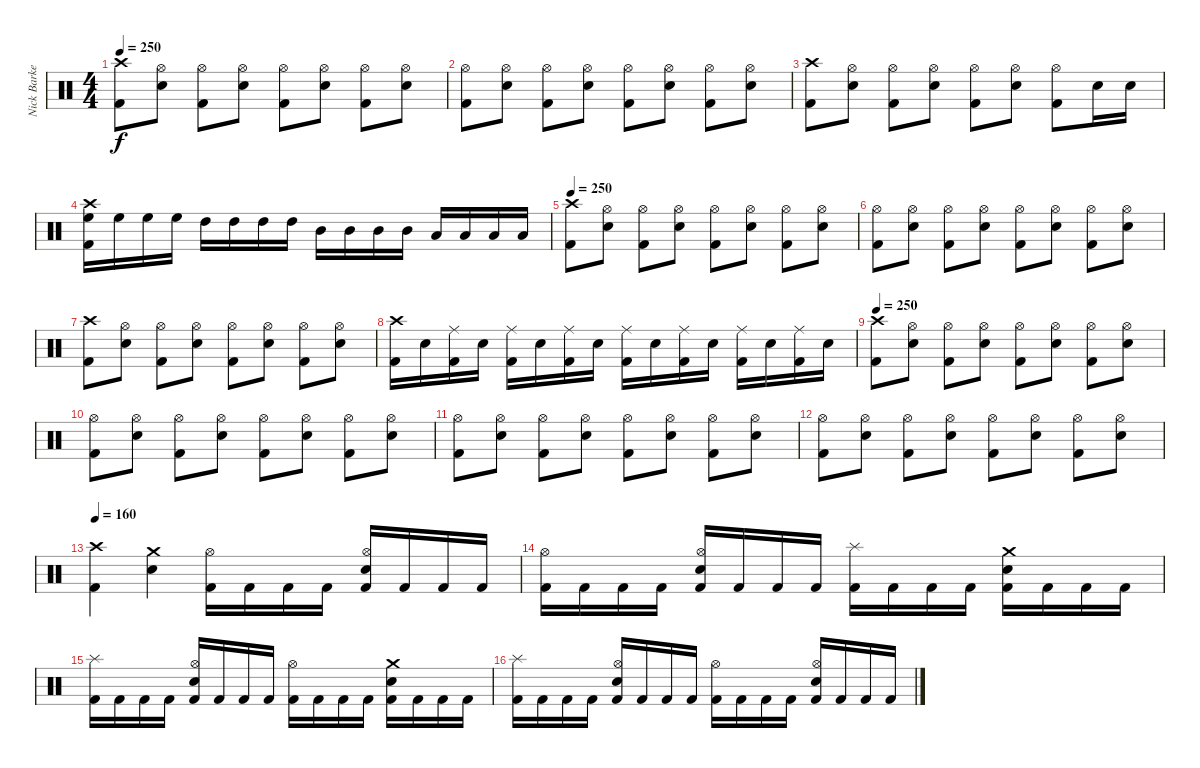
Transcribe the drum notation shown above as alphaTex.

\track ("Nick Barker" "Nick Barke") {instrument percussion}
\staff {score}
\articulation defaults
\ts (4 4)
\tempo 250
\clef neutral
\ks c
("Crash high (hit)" "Kick (hit) 2").8{dy f} ("Hi-Hat (open)" "Electric Snare (hit)").8 ("Hi-Hat (open)" "Kick (hit) 2").8 ("Hi-Hat (open)" "Electric Snare (hit)").8 ("Hi-Hat (open)" "Kick (hit) 2").8 ("Hi-Hat (open)" "Electric Snare (hit)").8 ("Hi-Hat (open)" "Kick (hit) 2").8 ("Hi-Hat (open)" "Electric Snare (hit)").8 |
("Hi-Hat (open)" "Kick (hit) 2").8 ("Hi-Hat (open)" "Electric Snare (hit)").8 ("Hi-Hat (open)" "Kick (hit) 2").8 ("Hi-Hat (open)" "Electric Snare (hit)").8 ("Hi-Hat (open)" "Kick (hit) 2").8 ("Hi-Hat (open)" "Electric Snare (hit)").8 ("Hi-Hat (open)" "Kick (hit) 2").8 ("Hi-Hat (open)" "Electric Snare (hit)").8 |
("Crash high (hit)" "Kick (hit) 2").8 ("Hi-Hat (open)" "Electric Snare (hit)").8 ("Hi-Hat (open)" "Kick (hit) 2").8 ("Hi-Hat (open)" "Electric Snare (hit)").8 ("Hi-Hat (open)" "Kick (hit) 2").8 ("Hi-Hat (open)" "Electric Snare (hit)").8 ("Hi-Hat (open)" "Kick (hit) 2").8 "Electric Snare (hit)".16 "Electric Snare (hit)".16 |
("Crash high (hit)" "High Floor Tom (hit)" "Kick (hit) 2").16 "High Floor Tom (hit)".16 "High Floor Tom (hit)".16 "High Floor Tom (hit)".16 "High Tom (hit)".16 "High Tom (hit)".16 "High Tom (hit)".16 "High Tom (hit)".16 "Mid Tom (hit)".16 "Mid Tom (hit)".16 "Mid Tom (hit)".16 "Mid Tom (hit)".16 "Low Tom (hit)".16 "Low Tom (hit)".16 "Low Tom (hit)".16 "Low Tom (hit)".16 |
\tempo 250
("Crash high (hit)" "Kick (hit) 2").8 ("Hi-Hat (open)" "Electric Snare (hit)").8 ("Hi-Hat (open)" "Kick (hit) 2").8 ("Hi-Hat (open)" "Electric Snare (hit)").8 ("Hi-Hat (open)" "Kick (hit) 2").8 ("Hi-Hat (open)" "Electric Snare (hit)").8 ("Hi-Hat (open)" "Kick (hit) 2").8 ("Hi-Hat (open)" "Electric Snare (hit)").8 |
("Hi-Hat (open)" "Kick (hit) 2").8 ("Hi-Hat (open)" "Electric Snare (hit)").8 ("Hi-Hat (open)" "Kick (hit) 2").8 ("Hi-Hat (open)" "Electric Snare (hit)").8 ("Hi-Hat (open)" "Kick (hit) 2").8 ("Hi-Hat (open)" "Electric Snare (hit)").8 ("Hi-Hat (open)" "Kick (hit) 2").8 ("Hi-Hat (open)" "Electric Snare (hit)").8 |
("Crash high (hit)" "Kick (hit) 2").8 ("Hi-Hat (open)" "Electric Snare (hit)").8 ("Hi-Hat (open)" "Kick (hit) 2").8 ("Hi-Hat (open)" "Electric Snare (hit)").8 ("Hi-Hat (open)" "Kick (hit) 2").8 ("Hi-Hat (open)" "Electric Snare (hit)").8 ("Hi-Hat (open)" "Kick (hit) 2").8 ("Hi-Hat (open)" "Electric Snare (hit)").8 |
("Crash high (hit)" "Kick (hit) 2").16 "Electric Snare (hit)".16 ("Ride (middle)" "Kick (hit) 2").16 "Electric Snare (hit)".16 ("Ride (middle)" "Kick (hit) 2").16 "Electric Snare (hit)".16 ("Ride (middle)" "Kick (hit) 2").16 "Electric Snare (hit)".16 ("Ride (middle)" "Kick (hit) 2").16 "Electric Snare (hit)".16 ("Ride (middle)" "Kick (hit) 2").16 "Electric Snare (hit)".16 ("Ride (middle)" "Kick (hit) 2").16 "Electric Snare (hit)".16 ("Ride (middle)" "Kick (hit) 2").16 "Electric Snare (hit)".16 |
\tempo 250
("Crash high (hit)" "Kick (hit) 2").8 ("Hi-Hat (open)" "Electric Snare (hit)").8 ("Hi-Hat (open)" "Kick (hit) 2").8 ("Hi-Hat (open)" "Electric Snare (hit)").8 ("Hi-Hat (open)" "Kick (hit) 2").8 ("Hi-Hat (open)" "Electric Snare (hit)").8 ("Hi-Hat (open)" "Kick (hit) 2").8 ("Hi-Hat (open)" "Electric Snare (hit)").8 |
("Hi-Hat (open)" "Kick (hit) 2").8 ("Hi-Hat (open)" "Electric Snare (hit)").8 ("Hi-Hat (open)" "Kick (hit) 2").8 ("Hi-Hat (open)" "Electric Snare (hit)").8 ("Hi-Hat (open)" "Kick (hit) 2").8 ("Hi-Hat (open)" "Electric Snare (hit)").8 ("Hi-Hat (open)" "Kick (hit) 2").8 ("Hi-Hat (open)" "Electric Snare (hit)").8 |
("Hi-Hat (open)" "Kick (hit) 2").8 ("Hi-Hat (open)" "Electric Snare (hit)").8 ("Hi-Hat (open)" "Kick (hit) 2").8 ("Hi-Hat (open)" "Electric Snare (hit)").8 ("Hi-Hat (open)" "Kick (hit) 2").8 ("Hi-Hat (open)" "Electric Snare (hit)").8 ("Hi-Hat (open)" "Kick (hit) 2").8 ("Hi-Hat (open)" "Electric Snare (hit)").8 |
("Hi-Hat (open)" "Kick (hit) 2").8 ("Hi-Hat (open)" "Electric Snare (hit)").8 ("Hi-Hat (open)" "Kick (hit) 2").8 ("Hi-Hat (open)" "Electric Snare (hit)").8 ("Hi-Hat (open)" "Kick (hit) 2").8 ("Hi-Hat (open)" "Electric Snare (hit)").8 ("Hi-Hat (open)" "Kick (hit) 2").8 ("Hi-Hat (open)" "Electric Snare (hit)").8 |
\tempo 160
("Crash high (hit)" "Kick (hit) 2").4 ("Crash medium (hit)" "Electric Snare (hit)").4 ("Hi-Hat (open)" "Kick (hit) 2").16 "Kick (hit) 2".16 "Kick (hit) 2".16 "Kick (hit) 2".16 ("Hi-Hat (open)" "Electric Snare (hit)" "Kick (hit) 2").16 "Kick (hit) 2".16 "Kick (hit) 2".16 "Kick (hit) 2".16 |
("Hi-Hat (open)" "Kick (hit) 2").16 "Kick (hit) 2".16 "Kick (hit) 2".16 "Kick (hit) 2".16 ("Hi-Hat (open)" "Electric Snare (hit)" "Kick (hit) 2").16 "Kick (hit) 2".16 "Kick (hit) 2".16 "Kick (hit) 2".16 ("Splash (hit)" "Kick (hit) 2").16 "Kick (hit) 2".16 "Kick (hit) 2".16 "Kick (hit) 2".16 ("Crash medium (hit)" "Electric Snare (hit)" "Kick (hit) 2").16 "Kick (hit) 2".16 "Kick (hit) 2".16 "Kick (hit) 2".16 |
("Splash (hit)" "Kick (hit) 2").16 "Kick (hit) 2".16 "Kick (hit) 2".16 "Kick (hit) 2".16 ("Hi-Hat (open)" "Electric Snare (hit)" "Kick (hit) 2").16 "Kick (hit) 2".16 "Kick (hit) 2".16 "Kick (hit) 2".16 ("Hi-Hat (open)" "Kick (hit) 2").16 "Kick (hit) 2".16 "Kick (hit) 2".16 "Kick (hit) 2".16 ("Crash medium (hit)" "Electric Snare (hit)" "Kick (hit) 2").16 "Kick (hit) 2".16 "Kick (hit) 2".16 "Kick (hit) 2".16 |
("Splash (hit)" "Kick (hit) 2").16 "Kick (hit) 2".16 "Kick (hit) 2".16 "Kick (hit) 2".16 ("Hi-Hat (open)" "Electric Snare (hit)" "Kick (hit) 2").16 "Kick (hit) 2".16 "Kick (hit) 2".16 "Kick (hit) 2".16 ("Hi-Hat (open)" "Kick (hit) 2").16 "Kick (hit) 2".16 "Kick (hit) 2".16 "Kick (hit) 2".16 ("Hi-Hat (open)" "Electric Snare (hit)" "Kick (hit) 2").16 "Kick (hit) 2".16 "Kick (hit) 2".16 "Kick (hit) 2".16
